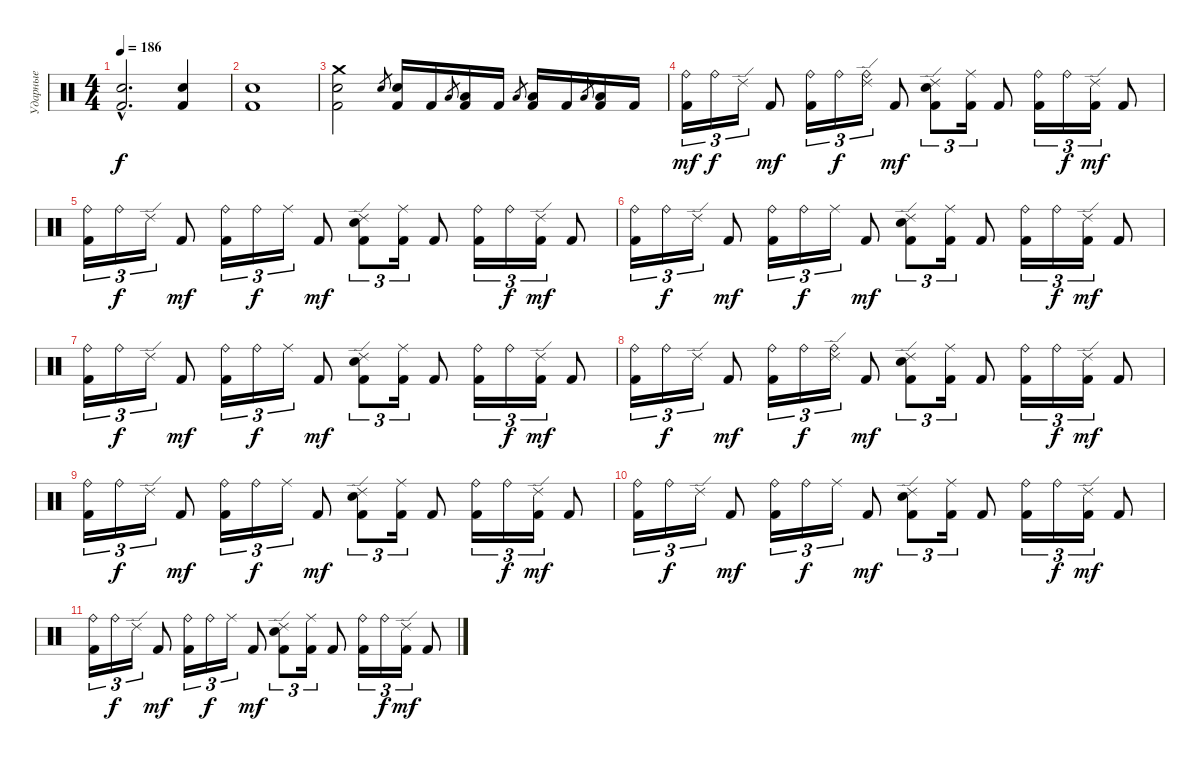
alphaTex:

\track ("Ударные" "Ударные") {instrument percussion}
\staff {score}
\articulation defaults
\ts (4 4)
\tempo 186
\clef neutral
\ks c
("Snare (hit) 2"{hac} "Kick (hit) 2"{hac}).2{d dy f} ("Snare (hit) 2" "Kick (hit) 2").4 |
("Snare (hit) 2" "Kick (hit) 2").1 |
("Crash medium (hit)" "Snare (hit) 2" "Kick (hit) 2").2 "Snare (hit) 2".8{gr} ("Snare (hit) 2" "Kick (hit) 2").16 "Kick (hit) 2".16 "Low Tom (hit)".8{gr} ("Low Tom (hit)" "Kick (hit) 2").16 "Kick (hit) 2".16 "Low Tom (hit)".8{gr} ("Low Tom (hit)" "Kick (hit) 2").16 "Kick (hit) 2".16 "Low Tom (hit)".8{gr} ("Low Tom (hit)" "Kick (hit) 2").16 "Kick (hit) 2".16 |
("Ride (bell)" "Kick (hit) 2").16{tu (3 2) dy mf} "Ride (bell)".16{tu (3 2) dy f} "Ride (edge) 2".16{tu (3 2)} "Kick (hit) 2".8{dy mf} ("Ride (bell)" "Kick (hit) 2").16{tu (3 2)} "Ride (bell)".16{tu (3 2) dy f} ("Ride (bell)" "Ride (edge) 2").16{tu (3 2)} "Kick (hit) 2".8{dy mf} ("Ride (edge) 2" "Snare (hit) 2" "Kick (hit) 2").8{tu (3 2)} ("Ride (middle)" "Kick (hit) 2").16{tu (3 2)} "Kick (hit) 2".8 ("Ride (bell)" "Kick (hit) 2").16{tu (3 2)} "Ride (bell)".16{tu (3 2) dy f} ("Ride (edge) 2" "Kick (hit) 2").16{tu (3 2) dy mf} "Kick (hit) 2".8 |
("Ride (bell)" "Kick (hit) 2").16{tu (3 2)} "Ride (bell)".16{tu (3 2) dy f} "Ride (edge) 2".16{tu (3 2)} "Kick (hit) 2".8{dy mf} ("Ride (bell)" "Kick (hit) 2").16{tu (3 2)} "Ride (bell)".16{tu (3 2) dy f} "Ride (middle)".16{tu (3 2)} "Kick (hit) 2".8{dy mf} ("Ride (edge) 2" "Snare (hit) 2" "Kick (hit) 2").8{tu (3 2)} ("Ride (middle)" "Kick (hit) 2").16{tu (3 2)} "Kick (hit) 2".8 ("Ride (bell)" "Kick (hit) 2").16{tu (3 2)} "Ride (bell)".16{tu (3 2) dy f} ("Ride (edge) 2" "Kick (hit) 2").16{tu (3 2) dy mf} "Kick (hit) 2".8 |
("Ride (bell)" "Kick (hit) 2").16{tu (3 2)} "Ride (bell)".16{tu (3 2) dy f} "Ride (edge) 2".16{tu (3 2)} "Kick (hit) 2".8{dy mf} ("Ride (bell)" "Kick (hit) 2").16{tu (3 2)} "Ride (bell)".16{tu (3 2) dy f} "Ride (middle)".16{tu (3 2)} "Kick (hit) 2".8{dy mf} ("Ride (edge) 2" "Snare (hit) 2" "Kick (hit) 2").8{tu (3 2)} ("Ride (middle)" "Kick (hit) 2").16{tu (3 2)} "Kick (hit) 2".8 ("Ride (bell)" "Kick (hit) 2").16{tu (3 2)} "Ride (bell)".16{tu (3 2) dy f} ("Ride (edge) 2" "Kick (hit) 2").16{tu (3 2) dy mf} "Kick (hit) 2".8 |
("Ride (bell)" "Kick (hit) 2").16{tu (3 2)} "Ride (bell)".16{tu (3 2) dy f} "Ride (edge) 2".16{tu (3 2)} "Kick (hit) 2".8{dy mf} ("Ride (bell)" "Kick (hit) 2").16{tu (3 2)} "Ride (bell)".16{tu (3 2) dy f} "Ride (middle)".16{tu (3 2)} "Kick (hit) 2".8{dy mf} ("Ride (edge) 2" "Snare (hit) 2" "Kick (hit) 2").8{tu (3 2)} ("Ride (middle)" "Kick (hit) 2").16{tu (3 2)} "Kick (hit) 2".8 ("Ride (bell)" "Kick (hit) 2").16{tu (3 2)} "Ride (bell)".16{tu (3 2) dy f} ("Ride (edge) 2" "Kick (hit) 2").16{tu (3 2) dy mf} "Kick (hit) 2".8 |
("Ride (bell)" "Kick (hit) 2").16{tu (3 2)} "Ride (bell)".16{tu (3 2) dy f} "Ride (edge) 2".16{tu (3 2)} "Kick (hit) 2".8{dy mf} ("Ride (bell)" "Kick (hit) 2").16{tu (3 2)} "Ride (bell)".16{tu (3 2) dy f} ("Ride (bell)" "Ride (edge) 2").16{tu (3 2)} "Kick (hit) 2".8{dy mf} ("Ride (edge) 2" "Snare (hit) 2" "Kick (hit) 2").8{tu (3 2)} ("Ride (middle)" "Kick (hit) 2").16{tu (3 2)} "Kick (hit) 2".8 ("Ride (bell)" "Kick (hit) 2").16{tu (3 2)} "Ride (bell)".16{tu (3 2) dy f} ("Ride (edge) 2" "Kick (hit) 2").16{tu (3 2) dy mf} "Kick (hit) 2".8 |
("Ride (bell)" "Kick (hit) 2").16{tu (3 2)} "Ride (bell)".16{tu (3 2) dy f} "Ride (edge) 2".16{tu (3 2)} "Kick (hit) 2".8{dy mf} ("Ride (bell)" "Kick (hit) 2").16{tu (3 2)} "Ride (bell)".16{tu (3 2) dy f} "Ride (middle)".16{tu (3 2)} "Kick (hit) 2".8{dy mf} ("Ride (edge) 2" "Snare (hit) 2" "Kick (hit) 2").8{tu (3 2)} ("Ride (middle)" "Kick (hit) 2").16{tu (3 2)} "Kick (hit) 2".8 ("Ride (bell)" "Kick (hit) 2").16{tu (3 2)} "Ride (bell)".16{tu (3 2) dy f} ("Ride (edge) 2" "Kick (hit) 2").16{tu (3 2) dy mf} "Kick (hit) 2".8 |
("Ride (bell)" "Kick (hit) 2").16{tu (3 2)} "Ride (bell)".16{tu (3 2) dy f} "Ride (edge) 2".16{tu (3 2)} "Kick (hit) 2".8{dy mf} ("Ride (bell)" "Kick (hit) 2").16{tu (3 2)} "Ride (bell)".16{tu (3 2) dy f} "Ride (middle)".16{tu (3 2)} "Kick (hit) 2".8{dy mf} ("Ride (edge) 2" "Snare (hit) 2" "Kick (hit) 2").8{tu (3 2)} ("Ride (middle)" "Kick (hit) 2").16{tu (3 2)} "Kick (hit) 2".8 ("Ride (bell)" "Kick (hit) 2").16{tu (3 2)} "Ride (bell)".16{tu (3 2) dy f} ("Ride (edge) 2" "Kick (hit) 2").16{tu (3 2) dy mf} "Kick (hit) 2".8 |
("Ride (bell)" "Kick (hit) 2").16{tu (3 2)} "Ride (bell)".16{tu (3 2) dy f} "Ride (edge) 2".16{tu (3 2)} "Kick (hit) 2".8{dy mf} ("Ride (bell)" "Kick (hit) 2").16{tu (3 2)} "Ride (bell)".16{tu (3 2) dy f} "Ride (middle)".16{tu (3 2)} "Kick (hit) 2".8{dy mf} ("Ride (edge) 2" "Snare (hit) 2" "Kick (hit) 2").8{tu (3 2)} ("Ride (middle)" "Kick (hit) 2").16{tu (3 2)} "Kick (hit) 2".8 ("Ride (bell)" "Kick (hit) 2").16{tu (3 2)} "Ride (bell)".16{tu (3 2) dy f} ("Ride (edge) 2" "Kick (hit) 2").16{tu (3 2) dy mf} "Kick (hit) 2".8
